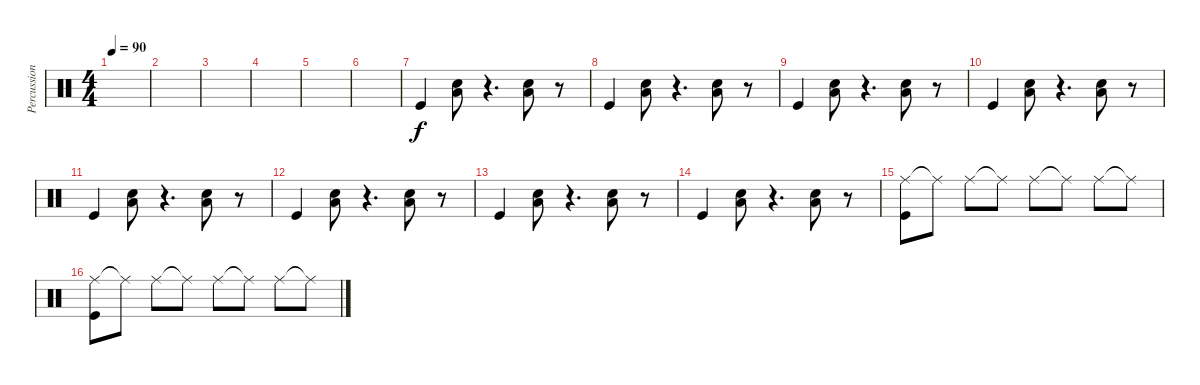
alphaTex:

\track ("Percussions" "Percussion") {instrument percussion}
\staff {score}
\articulation defaults
\ts (4 4)
\tempo 90
\clef neutral
\ks c
|
|
|
|
|
|
"Kick (hit)".4 ("Low Tom (hit)" "Snare (hit) 2").8 r.4{d} ("Low Tom (hit)" "Snare (hit) 2").8 r.8 |
"Kick (hit)".4 ("Low Tom (hit)" "Snare (hit) 2").8 r.4{d} ("Low Tom (hit)" "Snare (hit) 2").8 r.8 |
"Kick (hit)".4 ("Low Tom (hit)" "Snare (hit) 2").8 r.4{d} ("Low Tom (hit)" "Snare (hit) 2").8 r.8 |
"Kick (hit)".4 ("Low Tom (hit)" "Snare (hit) 2").8 r.4{d} ("Low Tom (hit)" "Snare (hit) 2").8 r.8 |
"Kick (hit)".4 ("Low Tom (hit)" "Snare (hit) 2").8 r.4{d} ("Low Tom (hit)" "Snare (hit) 2").8 r.8 |
"Kick (hit)".4 ("Low Tom (hit)" "Snare (hit) 2").8 r.4{d} ("Low Tom (hit)" "Snare (hit) 2").8 r.8 |
"Kick (hit)".4 ("Low Tom (hit)" "Snare (hit) 2").8 r.4{d} ("Low Tom (hit)" "Snare (hit) 2").8 r.8 |
"Kick (hit)".4 ("Low Tom (hit)" "Snare (hit) 2").8 r.4{d} ("Low Tom (hit)" "Snare (hit) 2").8 r.8 |
("Ride (middle)" "Kick (hit)").8 "Ride (middle)"{t}.8 "Ride (middle)".8 "Ride (middle)"{t}.8 "Ride (middle)".8 "Ride (middle)"{t}.8 "Ride (middle)".8 "Ride (middle)"{t}.8 |
("Ride (middle)" "Kick (hit)").8 "Ride (middle)"{t}.8 "Ride (middle)".8 "Ride (middle)"{t}.8 "Ride (middle)".8 "Ride (middle)"{t}.8 "Ride (middle)".8 "Ride (middle)"{t}.8
